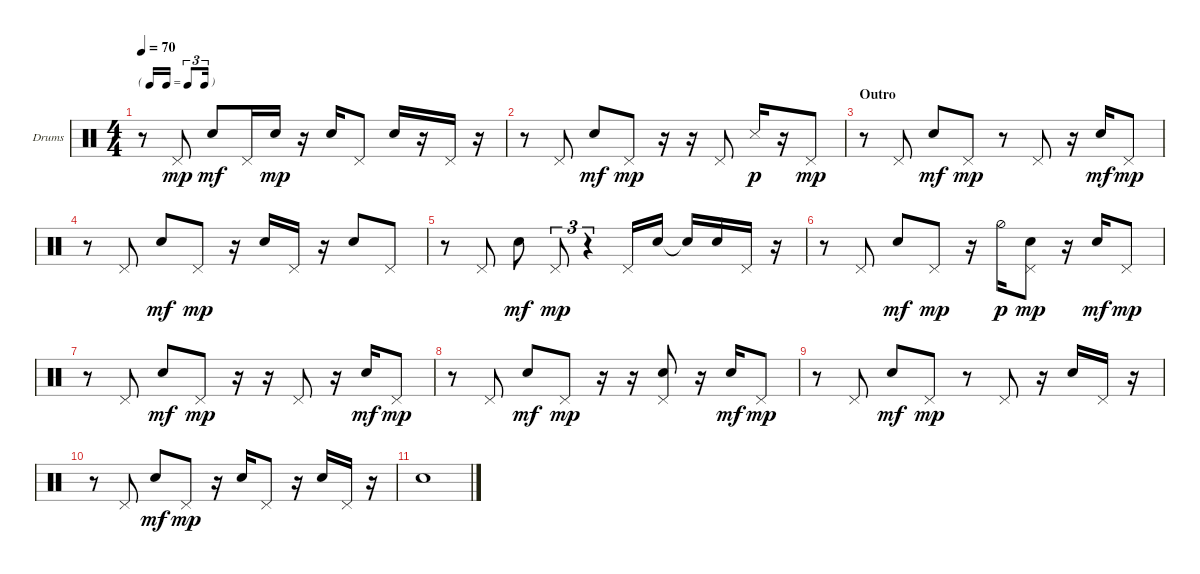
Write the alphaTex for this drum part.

\bracketExtendMode groupsimilarinstruments
\firstSystemTrackNameOrientation horizontal
\otherSystemsTrackNameOrientation horizontal
\track ("Snare" "Drums") {instrument percussion}
\staff {score}
\articulation defaults
\ts (4 4)
\tf triplet16th
\tempo 70
\clef neutral
\ks aminor
r.8{dy mp} "Pedal Hi-Hat (hit)".8 "Snare (hit) 2".8{dy mf} "Pedal Hi-Hat (hit)".16 "Snare (hit) 2".16{dy mp} r.16 "Snare (hit) 2".16 "Pedal Hi-Hat (hit)".8 "Snare (hit) 2".16 r.16 "Pedal Hi-Hat (hit)".16 r.16 |
r.8 "Pedal Hi-Hat (hit)".8 "Snare (hit) 2".8{dy mf} "Pedal Hi-Hat (hit)".8{dy mp} r.16 r.16 "Pedal Hi-Hat (hit)".8 "Snare (side stick) 3".16{dy p} r.16 "Pedal Hi-Hat (hit)".8{dy mp} |
\section ("" "Outro")
r.8 "Pedal Hi-Hat (hit)".8 "Snare (hit) 2".8{dy mf} "Pedal Hi-Hat (hit)".8{dy mp} r.8 "Pedal Hi-Hat (hit)".8 r.16 "Snare (hit) 2".16{dy mf} "Pedal Hi-Hat (hit)".8{dy mp} |
r.8 "Pedal Hi-Hat (hit)".8 "Snare (hit) 2".8{dy mf} "Pedal Hi-Hat (hit)".8{dy mp} r.16 "Snare (hit) 2".16 "Pedal Hi-Hat (hit)".16 r.16 "Snare (hit) 2".8 "Pedal Hi-Hat (hit)".8 |
r.8 "Pedal Hi-Hat (hit)".8 "Snare (hit) 2".8{dy mf} "Pedal Hi-Hat (hit)".8{tu (3 2) dy mp} r.4{tu (3 2)} "Pedal Hi-Hat (hit)".16 "Snare (hit) 2".16 "Snare (hit) 2"{t}.16 "Snare (hit) 2".16 "Pedal Hi-Hat (hit)".16 r.16 |
r.8 "Pedal Hi-Hat (hit)".8 "Snare (hit) 2".8{dy mf} "Pedal Hi-Hat (hit)".8{dy mp} r.16 "Hi-Hat (half)".16{dy p} ("Pedal Hi-Hat (hit)" "Snare (hit) 2").8{dy mp} r.16 "Snare (hit) 2".16{dy mf} "Pedal Hi-Hat (hit)".8{dy mp} |
r.8 "Pedal Hi-Hat (hit)".8 "Snare (hit) 2".8{dy mf} "Pedal Hi-Hat (hit)".8{dy mp} r.16 r.16 "Pedal Hi-Hat (hit)".8 r.16 "Snare (hit) 2".16{dy mf} "Pedal Hi-Hat (hit)".8{dy mp} |
r.8 "Pedal Hi-Hat (hit)".8 "Snare (hit) 2".8{dy mf} "Pedal Hi-Hat (hit)".8{dy mp} r.16 r.16 ("Pedal Hi-Hat (hit)" "Snare (hit) 2").8 r.16 "Snare (hit) 2".16{dy mf} "Pedal Hi-Hat (hit)".8{dy mp} |
r.8 "Pedal Hi-Hat (hit)".8 "Snare (hit) 2".8{dy mf} "Pedal Hi-Hat (hit)".8{dy mp} r.8 "Pedal Hi-Hat (hit)".8 r.16 "Snare (hit) 2".16 "Pedal Hi-Hat (hit)".16 r.16 |
r.8 "Pedal Hi-Hat (hit)".8 "Snare (hit) 2".8{dy mf} "Pedal Hi-Hat (hit)".8{dy mp} r.16 "Snare (hit) 2".16 "Pedal Hi-Hat (hit)".8 r.16 "Snare (hit) 2".16 "Pedal Hi-Hat (hit)".16 r.16 |
"Snare (hit) 2".1
